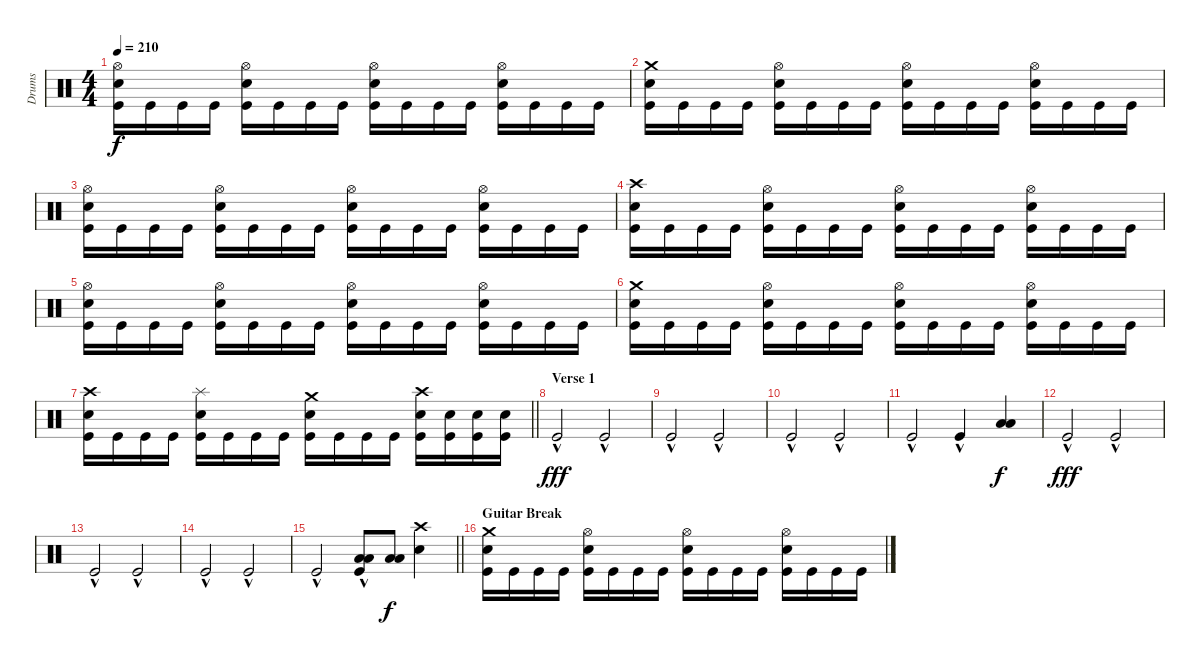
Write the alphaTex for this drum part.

\track ("Drums" "Drums") {instrument percussion}
\staff {score}
\articulation defaults
\ts (4 4)
\tempo 210
\clef neutral
\ks c
("Hi-Hat (open)" "Electric Snare (hit)" "Kick (hit)").16{dy f} "Kick (hit)".16 "Kick (hit)".16 "Kick (hit)".16 ("Hi-Hat (open)" "Electric Snare (hit)" "Kick (hit)").16 "Kick (hit)".16 "Kick (hit)".16 "Kick (hit)".16 ("Hi-Hat (open)" "Electric Snare (hit)" "Kick (hit)").16 "Kick (hit)".16 "Kick (hit)".16 "Kick (hit)".16 ("Hi-Hat (open)" "Electric Snare (hit)" "Kick (hit)").16 "Kick (hit)".16 "Kick (hit)".16 "Kick (hit)".16 |
("Crash medium (hit)" "Electric Snare (hit)" "Kick (hit)").16 "Kick (hit)".16 "Kick (hit)".16 "Kick (hit)".16 ("Hi-Hat (open)" "Electric Snare (hit)" "Kick (hit)").16 "Kick (hit)".16 "Kick (hit)".16 "Kick (hit)".16 ("Hi-Hat (open)" "Electric Snare (hit)" "Kick (hit)").16 "Kick (hit)".16 "Kick (hit)".16 "Kick (hit)".16 ("Hi-Hat (open)" "Electric Snare (hit)" "Kick (hit)").16 "Kick (hit)".16 "Kick (hit)".16 "Kick (hit)".16 |
("Hi-Hat (open)" "Electric Snare (hit)" "Kick (hit)").16 "Kick (hit)".16 "Kick (hit)".16 "Kick (hit)".16 ("Hi-Hat (open)" "Electric Snare (hit)" "Kick (hit)").16 "Kick (hit)".16 "Kick (hit)".16 "Kick (hit)".16 ("Hi-Hat (open)" "Electric Snare (hit)" "Kick (hit)").16 "Kick (hit)".16 "Kick (hit)".16 "Kick (hit)".16 ("Hi-Hat (open)" "Electric Snare (hit)" "Kick (hit)").16 "Kick (hit)".16 "Kick (hit)".16 "Kick (hit)".16 |
("Crash high (hit)" "Electric Snare (hit)" "Kick (hit)").16 "Kick (hit)".16 "Kick (hit)".16 "Kick (hit)".16 ("Hi-Hat (open)" "Electric Snare (hit)" "Kick (hit)").16 "Kick (hit)".16 "Kick (hit)".16 "Kick (hit)".16 ("Hi-Hat (open)" "Electric Snare (hit)" "Kick (hit)").16 "Kick (hit)".16 "Kick (hit)".16 "Kick (hit)".16 ("Hi-Hat (open)" "Electric Snare (hit)" "Kick (hit)").16 "Kick (hit)".16 "Kick (hit)".16 "Kick (hit)".16 |
("Hi-Hat (open)" "Electric Snare (hit)" "Kick (hit)").16 "Kick (hit)".16 "Kick (hit)".16 "Kick (hit)".16 ("Hi-Hat (open)" "Electric Snare (hit)" "Kick (hit)").16 "Kick (hit)".16 "Kick (hit)".16 "Kick (hit)".16 ("Hi-Hat (open)" "Electric Snare (hit)" "Kick (hit)").16 "Kick (hit)".16 "Kick (hit)".16 "Kick (hit)".16 ("Hi-Hat (open)" "Electric Snare (hit)" "Kick (hit)").16 "Kick (hit)".16 "Kick (hit)".16 "Kick (hit)".16 |
("Crash medium (hit)" "Electric Snare (hit)" "Kick (hit)").16 "Kick (hit)".16 "Kick (hit)".16 "Kick (hit)".16 ("Hi-Hat (open)" "Electric Snare (hit)" "Kick (hit)").16 "Kick (hit)".16 "Kick (hit)".16 "Kick (hit)".16 ("Hi-Hat (open)" "Electric Snare (hit)" "Kick (hit)").16 "Kick (hit)".16 "Kick (hit)".16 "Kick (hit)".16 ("Hi-Hat (open)" "Electric Snare (hit)" "Kick (hit)").16 "Kick (hit)".16 "Kick (hit)".16 "Kick (hit)".16 |
\barLineRight lightlight
("Crash high (hit)" "Electric Snare (hit)" "Kick (hit)").16 "Kick (hit)".16 "Kick (hit)".16 "Kick (hit)".16 ("Splash (hit)" "Electric Snare (hit)" "Kick (hit)").16 "Kick (hit)".16 "Kick (hit)".16 "Kick (hit)".16 ("Crash medium (hit)" "Electric Snare (hit)" "Kick (hit)").16 "Kick (hit)".16 "Kick (hit)".16 "Kick (hit)".16 ("Crash high (hit)" "Electric Snare (hit)" "Kick (hit)").16 ("Electric Snare (hit)" "Kick (hit)").16 ("Electric Snare (hit)" "Kick (hit)").16 ("Electric Snare (hit)" "Kick (hit)").16 |
\section ("" "Verse 1")
"Kick (hit)"{hac}.2{dy fff} "Kick (hit)"{hac}.2 |
"Kick (hit)"{hac}.2 "Kick (hit)"{hac}.2 |
"Kick (hit)"{hac}.2 "Kick (hit)"{hac}.2 |
"Kick (hit)"{hac}.2 "Kick (hit)"{hac}.4 ("Low Tom (hit)" "Low Floor Tom (hit)").4{dy f} |
"Kick (hit)"{hac}.2{dy fff} "Kick (hit)"{hac}.2 |
"Kick (hit)"{hac}.2 "Kick (hit)"{hac}.2 |
"Kick (hit)"{hac}.2 "Kick (hit)"{hac}.2 |
\barLineRight lightlight "Kick (hit)"{hac}.2
("Low Tom (hit)" "Low Floor Tom (hit)" "Kick (hit)"{hac}).8 ("Low Tom (hit)" "Low Floor Tom (hit)").8{dy f} ("Crash high (hit)" "Electric Snare (hit)").4 |
\section ("" "Guitar Break")
("Crash medium (hit)" "Electric Snare (hit)" "Kick (hit)").16 "Kick (hit)".16 "Kick (hit)".16 "Kick (hit)".16 ("Hi-Hat (open)" "Electric Snare (hit)" "Kick (hit)").16 "Kick (hit)".16 "Kick (hit)".16 "Kick (hit)".16 ("Hi-Hat (open)" "Electric Snare (hit)" "Kick (hit)").16 "Kick (hit)".16 "Kick (hit)".16 "Kick (hit)".16 ("Hi-Hat (open)" "Electric Snare (hit)" "Kick (hit)").16 "Kick (hit)".16 "Kick (hit)".16 "Kick (hit)".16
